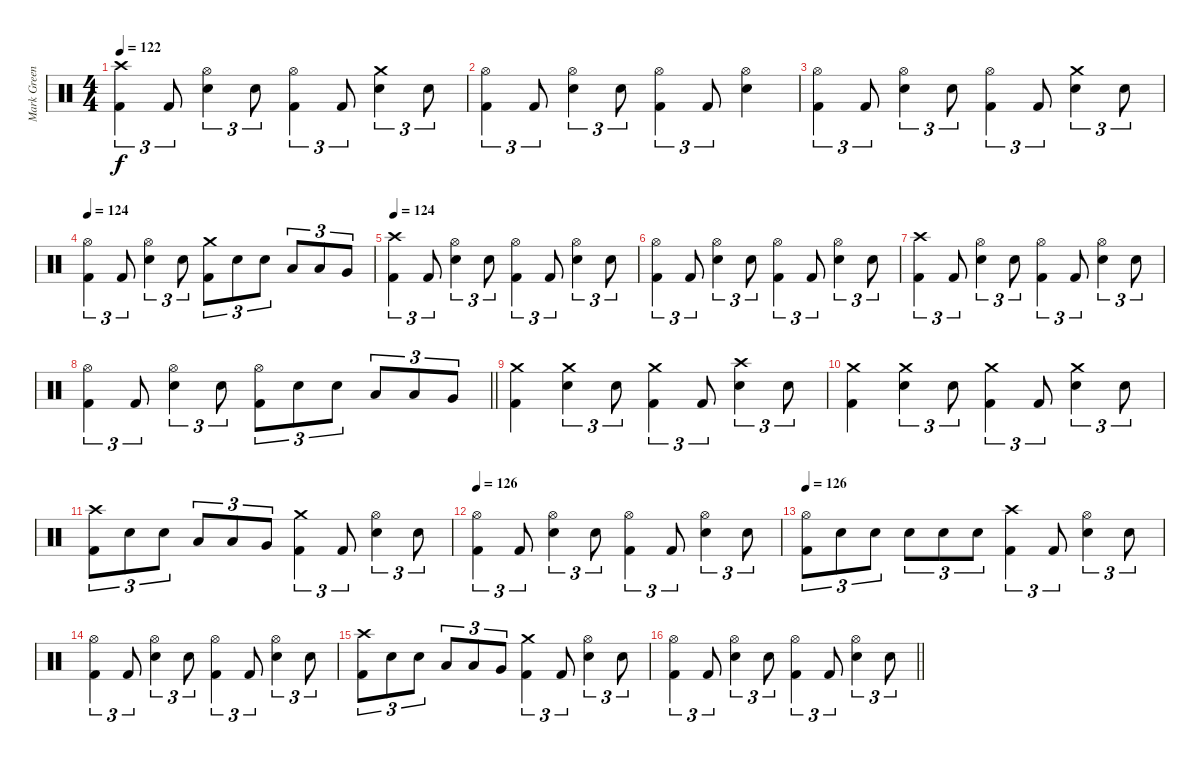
\track ("Mark Greening" "Mark Green") {instrument percussion}
\staff {score}
\articulation defaults
\ts (4 4)
\section ("" "")
\tempo 122
\clef neutral
\ks c
("Crash high (hit)" "Kick (hit) 2").4{tu (3 2) dy f} "Kick (hit) 2".8{tu (3 2)} ("Hi-Hat (open)" "Electric Snare (hit)").4{tu (3 2)} "Electric Snare (hit)".8{tu (3 2)} ("Hi-Hat (open)" "Kick (hit) 2").4{tu (3 2)} "Kick (hit) 2".8{tu (3 2)} ("Crash medium (hit)" "Electric Snare (hit)").4{tu (3 2)} "Electric Snare (hit)".8{tu (3 2)} |
("Hi-Hat (open)" "Kick (hit) 2").4{tu (3 2)} "Kick (hit) 2".8{tu (3 2)} ("Hi-Hat (open)" "Electric Snare (hit)").4{tu (3 2)} "Electric Snare (hit)".8{tu (3 2)} ("Hi-Hat (open)" "Kick (hit) 2").4{tu (3 2)} "Kick (hit) 2".8{tu (3 2)} ("Hi-Hat (open)" "Electric Snare (hit)").4 |
("Hi-Hat (open)" "Kick (hit) 2").4{tu (3 2)} "Kick (hit) 2".8{tu (3 2)} ("Hi-Hat (open)" "Electric Snare (hit)").4{tu (3 2)} "Electric Snare (hit)".8{tu (3 2)} ("Hi-Hat (open)" "Kick (hit) 2").4{tu (3 2)} "Kick (hit) 2".8{tu (3 2)} ("Crash medium (hit)" "Electric Snare (hit)").4{tu (3 2)} "Electric Snare (hit)".8{tu (3 2)} |
\tempo 124
("Hi-Hat (open)" "Kick (hit) 2").4{tu (3 2)} "Kick (hit) 2".8{tu (3 2)} ("Hi-Hat (open)" "Electric Snare (hit)").4{tu (3 2)} "Electric Snare (hit)".8{tu (3 2)} ("Crash medium (hit)" "Kick (hit) 2").8{tu (3 2)} "Electric Snare (hit)".8{tu (3 2)} "Electric Snare (hit)".8{tu (3 2)} "Low Tom (hit)".8{tu (3 2)} "Low Tom (hit)".8{tu (3 2)} "Very Low Tom (hit)".8{tu (3 2)} |
\tempo 124
("Crash high (hit)" "Kick (hit) 2").4{tu (3 2)} "Kick (hit) 2".8{tu (3 2)} ("Hi-Hat (open)" "Electric Snare (hit)").4{tu (3 2)} "Electric Snare (hit)".8{tu (3 2)} ("Hi-Hat (open)" "Kick (hit) 2").4{tu (3 2)} "Kick (hit) 2".8{tu (3 2)} ("Hi-Hat (open)" "Electric Snare (hit)").4{tu (3 2)} "Electric Snare (hit)".8{tu (3 2)} |
("Hi-Hat (open)" "Kick (hit) 2").4{tu (3 2)} "Kick (hit) 2".8{tu (3 2)} ("Hi-Hat (open)" "Electric Snare (hit)").4{tu (3 2)} "Electric Snare (hit)".8{tu (3 2)} ("Hi-Hat (open)" "Kick (hit) 2").4{tu (3 2)} "Kick (hit) 2".8{tu (3 2)} ("Hi-Hat (open)" "Electric Snare (hit)").4{tu (3 2)} "Electric Snare (hit)".8{tu (3 2)} |
("Crash high (hit)" "Kick (hit) 2").4{tu (3 2)} "Kick (hit) 2".8{tu (3 2)} ("Hi-Hat (open)" "Electric Snare (hit)").4{tu (3 2)} "Electric Snare (hit)".8{tu (3 2)} ("Hi-Hat (open)" "Kick (hit) 2").4{tu (3 2)} "Kick (hit) 2".8{tu (3 2)} ("Hi-Hat (open)" "Electric Snare (hit)").4{tu (3 2)} "Electric Snare (hit)".8{tu (3 2)} |
\barLineRight lightlight
("Hi-Hat (open)" "Kick (hit) 2").4{tu (3 2)} "Kick (hit) 2".8{tu (3 2)} ("Hi-Hat (open)" "Electric Snare (hit)").4{tu (3 2)} "Electric Snare (hit)".8{tu (3 2)} ("Hi-Hat (open)" "Kick (hit) 2").8{tu (3 2)} "Electric Snare (hit)".8{tu (3 2)} "Electric Snare (hit)".8{tu (3 2)} "Low Tom (hit)".8{tu (3 2)} "Low Tom (hit)".8{tu (3 2)} "Very Low Tom (hit)".8{tu (3 2)} |
\section ("" "")
("Crash medium (hit)" "Kick (hit) 2").4 ("Crash medium (hit)" "Electric Snare (hit)").4{tu (3 2)} "Electric Snare (hit)".8{tu (3 2)} ("Crash medium (hit)" "Kick (hit) 2").4{tu (3 2)} "Kick (hit) 2".8{tu (3 2)} ("Crash high (hit)" "Electric Snare (hit)").4{tu (3 2)} "Electric Snare (hit)".8{tu (3 2)} |
("Crash medium (hit)" "Kick (hit) 2").4 ("Crash medium (hit)" "Electric Snare (hit)").4{tu (3 2)} "Electric Snare (hit)".8{tu (3 2)} ("Crash medium (hit)" "Kick (hit) 2").4{tu (3 2)} "Kick (hit) 2".8{tu (3 2)} ("Crash medium (hit)" "Electric Snare (hit)").4{tu (3 2)} "Electric Snare (hit)".8{tu (3 2)} |
("Crash high (hit)" "Kick (hit) 2").8{tu (3 2)} "Electric Snare (hit)".8{tu (3 2)} "Electric Snare (hit)".8{tu (3 2)} "Low Tom (hit)".8{tu (3 2)} "Low Tom (hit)".8{tu (3 2)} "Very Low Tom (hit)".8{tu (3 2)} ("Crash medium (hit)" "Kick (hit) 2").4{tu (3 2)} "Kick (hit) 2".8{tu (3 2)} ("Hi-Hat (open)" "Electric Snare (hit)").4{tu (3 2)} "Electric Snare (hit)".8{tu (3 2)} |
\tempo 126
("Hi-Hat (open)" "Kick (hit) 2").4{tu (3 2)} "Kick (hit) 2".8{tu (3 2)} ("Hi-Hat (open)" "Electric Snare (hit)").4{tu (3 2)} "Electric Snare (hit)".8{tu (3 2)} ("Hi-Hat (open)" "Kick (hit) 2").4{tu (3 2)} "Kick (hit) 2".8{tu (3 2)} ("Hi-Hat (open)" "Electric Snare (hit)").4{tu (3 2)} "Electric Snare (hit)".8{tu (3 2)} |
\tempo 126
("Hi-Hat (open)" "Kick (hit) 2").8{tu (3 2)} "Electric Snare (hit)".8{tu (3 2)} "Electric Snare (hit)".8{tu (3 2)} "Electric Snare (hit)".8{tu (3 2)} "Electric Snare (hit)".8{tu (3 2)} "Electric Snare (hit)".8{tu (3 2)} ("Crash high (hit)" "Kick (hit) 2").4{tu (3 2)} "Kick (hit) 2".8{tu (3 2)} ("Hi-Hat (open)" "Electric Snare (hit)").4{tu (3 2)} "Electric Snare (hit)".8{tu (3 2)} |
("Hi-Hat (open)" "Kick (hit) 2").4{tu (3 2)} "Kick (hit) 2".8{tu (3 2)} ("Hi-Hat (open)" "Electric Snare (hit)").4{tu (3 2)} "Electric Snare (hit)".8{tu (3 2)} ("Hi-Hat (open)" "Kick (hit) 2").4{tu (3 2)} "Kick (hit) 2".8{tu (3 2)} ("Hi-Hat (open)" "Electric Snare (hit)").4{tu (3 2)} "Electric Snare (hit)".8{tu (3 2)} |
("Crash high (hit)" "Kick (hit) 2").8{tu (3 2)} "Electric Snare (hit)".8{tu (3 2)} "Electric Snare (hit)".8{tu (3 2)} "Low Tom (hit)".8{tu (3 2)} "Low Tom (hit)".8{tu (3 2)} "Very Low Tom (hit)".8{tu (3 2)} ("Crash medium (hit)" "Kick (hit) 2").4{tu (3 2)} "Kick (hit) 2".8{tu (3 2)} ("Hi-Hat (open)" "Electric Snare (hit)").4{tu (3 2)} "Electric Snare (hit)".8{tu (3 2)} |
\barLineRight lightlight
("Hi-Hat (open)" "Kick (hit) 2").4{tu (3 2)} "Kick (hit) 2".8{tu (3 2)} ("Hi-Hat (open)" "Electric Snare (hit)").4{tu (3 2)} "Electric Snare (hit)".8{tu (3 2)} ("Hi-Hat (open)" "Kick (hit) 2").4{tu (3 2)} "Kick (hit) 2".8{tu (3 2)} ("Hi-Hat (open)" "Electric Snare (hit)").4{tu (3 2)} "Electric Snare (hit)".8{tu (3 2)}
